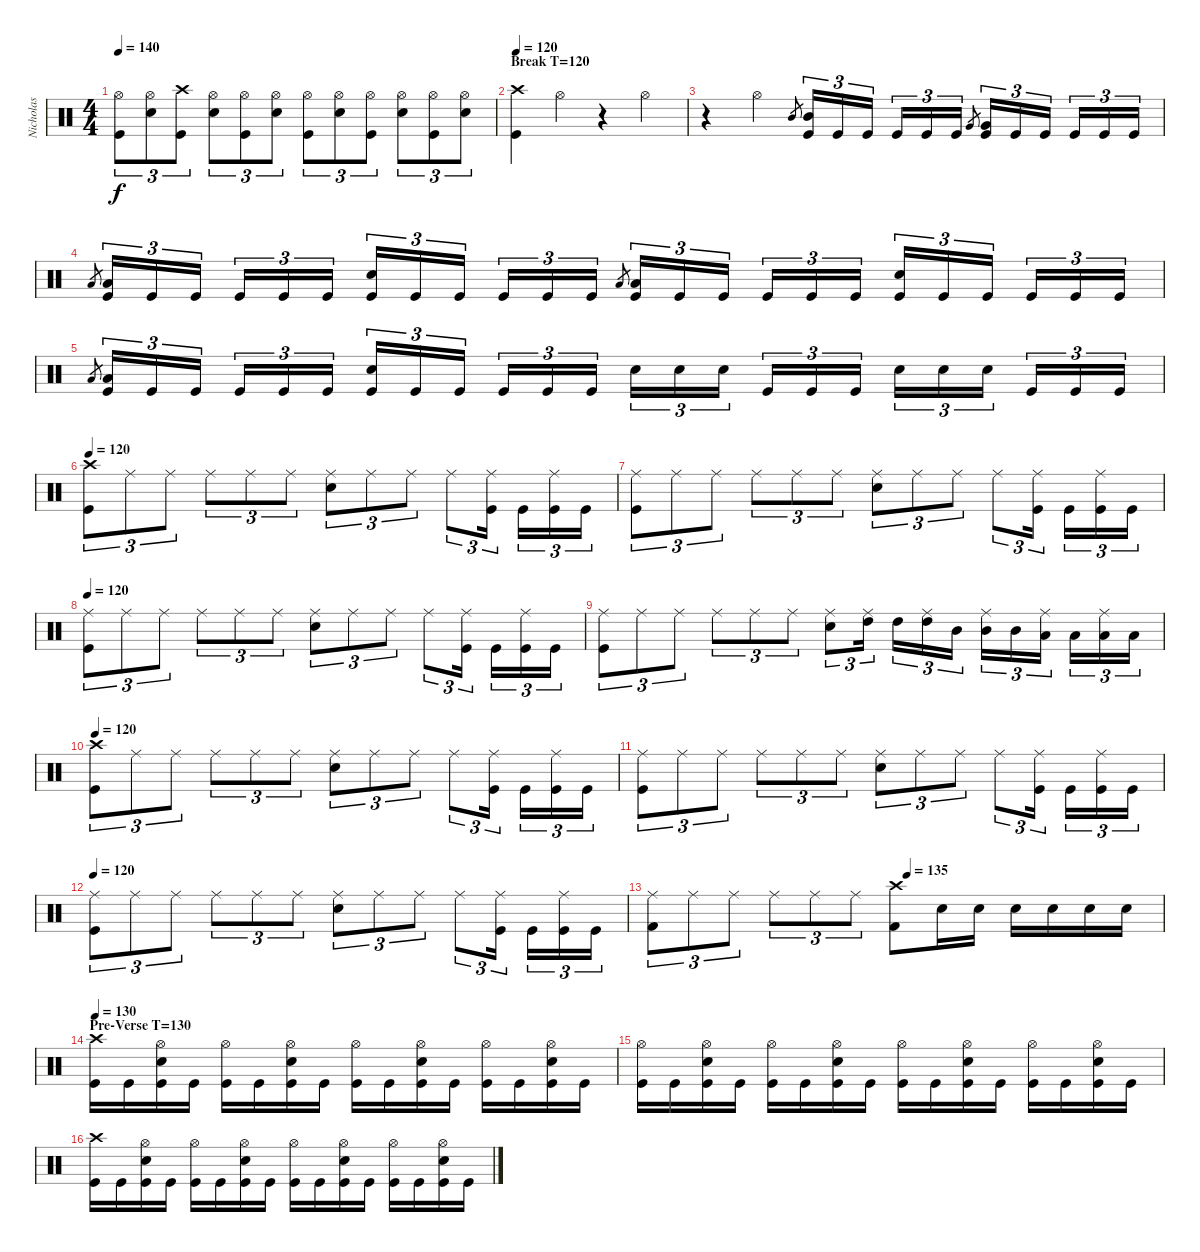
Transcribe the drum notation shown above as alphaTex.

\track ("Nicholas" "Nicholas") {instrument percussion}
\staff {score}
\articulation defaults
\ts (4 4)
\tempo 140
\clef neutral
\ks c
("Hi-Hat (open)" "Kick (hit)").8{tu (3 2) dy f} ("Hi-Hat (open)" "Electric Snare (hit)").8{tu (3 2)} ("Crash high (hit)" "Kick (hit)").8{tu (3 2)} ("Hi-Hat (open)" "Electric Snare (hit)").8{tu (3 2)} ("Hi-Hat (open)" "Kick (hit)").8{tu (3 2)} ("Hi-Hat (open)" "Electric Snare (hit)").8{tu (3 2)} ("Hi-Hat (open)" "Kick (hit)").8{tu (3 2)} ("Hi-Hat (open)" "Electric Snare (hit)").8{tu (3 2)} ("Hi-Hat (open)" "Kick (hit)").8{tu (3 2)} ("Hi-Hat (open)" "Electric Snare (hit)").8{tu (3 2)} ("Hi-Hat (open)" "Kick (hit)").8{tu (3 2)} ("Hi-Hat (open)" "Electric Snare (hit)").8{tu (3 2)} |
\section ("" "Break T=120")
\tempo 120
("Crash high (hit)" "Kick (hit)").4 "Hi-Hat (open)".4 r.4 "Hi-Hat (open)".4 |
r.4 "Hi-Hat (open)".4 "Mid Tom (hit)".8{gr} ("Mid Tom (hit)" "Kick (hit)").16{tu (3 2)} "Kick (hit)".16{tu (3 2)} "Kick (hit)".16{tu (3 2)} "Kick (hit)".16{tu (3 2)} "Kick (hit)".16{tu (3 2)} "Kick (hit)".16{tu (3 2)} "Very Low Tom (hit)".8{gr} ("Very Low Tom (hit)" "Kick (hit)").16{tu (3 2)} "Kick (hit)".16{tu (3 2)} "Kick (hit)".16{tu (3 2)} "Kick (hit)".16{tu (3 2)} "Kick (hit)".16{tu (3 2)} "Kick (hit)".16{tu (3 2)} |
"Low Tom (hit)".8{gr} ("Low Tom (hit)" "Kick (hit)").16{tu (3 2)} "Kick (hit)".16{tu (3 2)} "Kick (hit)".16{tu (3 2)} "Kick (hit)".16{tu (3 2)} "Kick (hit)".16{tu (3 2)} "Kick (hit)".16{tu (3 2)} ("Electric Snare (hit)" "Kick (hit)").16{tu (3 2)} "Kick (hit)".16{tu (3 2)} "Kick (hit)".16{tu (3 2)} "Kick (hit)".16{tu (3 2)} "Kick (hit)".16{tu (3 2)} "Kick (hit)".16{tu (3 2)} "Low Tom (hit)".8{gr} ("Low Tom (hit)" "Kick (hit)").16{tu (3 2)} "Kick (hit)".16{tu (3 2)} "Kick (hit)".16{tu (3 2)} "Kick (hit)".16{tu (3 2)} "Kick (hit)".16{tu (3 2)} "Kick (hit)".16{tu (3 2)} ("Electric Snare (hit)" "Kick (hit)").16{tu (3 2)} "Kick (hit)".16{tu (3 2)} "Kick (hit)".16{tu (3 2)} "Kick (hit)".16{tu (3 2)} "Kick (hit)".16{tu (3 2)} "Kick (hit)".16{tu (3 2)} |
"Low Tom (hit)".8{gr} ("Low Tom (hit)" "Kick (hit)").16{tu (3 2)} "Kick (hit)".16{tu (3 2)} "Kick (hit)".16{tu (3 2)} "Kick (hit)".16{tu (3 2)} "Kick (hit)".16{tu (3 2)} "Kick (hit)".16{tu (3 2)} ("Electric Snare (hit)" "Kick (hit)").16{tu (3 2)} "Kick (hit)".16{tu (3 2)} "Kick (hit)".16{tu (3 2)} "Kick (hit)".16{tu (3 2)} "Kick (hit)".16{tu (3 2)} "Kick (hit)".16{tu (3 2)} "Electric Snare (hit)".16{tu (3 2)} "Electric Snare (hit)".16{tu (3 2)} "Electric Snare (hit)".16{tu (3 2)} "Kick (hit)".16{tu (3 2)} "Kick (hit)".16{tu (3 2)} "Kick (hit)".16{tu (3 2)} "Electric Snare (hit)".16{tu (3 2)} "Electric Snare (hit)".16{tu (3 2)} "Electric Snare (hit)".16{tu (3 2)} "Kick (hit)".16{tu (3 2)} "Kick (hit)".16{tu (3 2)} "Kick (hit)".16{tu (3 2)} |
\tempo 120
("Crash high (hit)" "Kick (hit)").8{tu (3 2)} "Ride (middle)".8{tu (3 2)} "Ride (middle)".8{tu (3 2)} "Ride (middle)".8{tu (3 2)} "Ride (middle)".8{tu (3 2)} "Ride (middle)".8{tu (3 2)} ("Ride (middle)" "Electric Snare (hit)").8{tu (3 2)} "Ride (middle)".8{tu (3 2)} "Ride (middle)".8{tu (3 2)} "Ride (middle)".8{tu (3 2)} ("Ride (middle)" "Kick (hit)").16{tu (3 2)} "Kick (hit)".16{tu (3 2)} ("Ride (middle)" "Kick (hit)").16{tu (3 2)} "Kick (hit)".16{tu (3 2)} |
("Ride (middle)" "Kick (hit)").8{tu (3 2)} "Ride (middle)".8{tu (3 2)} "Ride (middle)".8{tu (3 2)} "Ride (middle)".8{tu (3 2)} "Ride (middle)".8{tu (3 2)} "Ride (middle)".8{tu (3 2)} ("Ride (middle)" "Electric Snare (hit)").8{tu (3 2)} "Ride (middle)".8{tu (3 2)} "Ride (middle)".8{tu (3 2)} "Ride (middle)".8{tu (3 2)} ("Ride (middle)" "Kick (hit)").16{tu (3 2)} "Kick (hit)".16{tu (3 2)} ("Ride (middle)" "Kick (hit)").16{tu (3 2)} "Kick (hit)".16{tu (3 2)} |
\tempo 120
("Ride (middle)" "Kick (hit)").8{tu (3 2)} "Ride (middle)".8{tu (3 2)} "Ride (middle)".8{tu (3 2)} "Ride (middle)".8{tu (3 2)} "Ride (middle)".8{tu (3 2)} "Ride (middle)".8{tu (3 2)} ("Ride (middle)" "Electric Snare (hit)").8{tu (3 2)} "Ride (middle)".8{tu (3 2)} "Ride (middle)".8{tu (3 2)} "Ride (middle)".8{tu (3 2)} ("Ride (middle)" "Kick (hit)").16{tu (3 2)} "Kick (hit)".16{tu (3 2)} ("Ride (middle)" "Kick (hit)").16{tu (3 2)} "Kick (hit)".16{tu (3 2)} |
("Ride (middle)" "Kick (hit)").8{tu (3 2)} "Ride (middle)".8{tu (3 2)} "Ride (middle)".8{tu (3 2)} "Ride (middle)".8{tu (3 2)} "Ride (middle)".8{tu (3 2)} "Ride (middle)".8{tu (3 2)} ("Ride (middle)" "Electric Snare (hit)").8{tu (3 2)} ("Ride (middle)" "High Tom (hit)").16{tu (3 2)} "High Tom (hit)".16{tu (3 2)} ("Ride (middle)" "High Tom (hit)").16{tu (3 2)} "Mid Tom (hit)".16{tu (3 2)} ("Ride (middle)" "Mid Tom (hit)").16{tu (3 2)} "Mid Tom (hit)".16{tu (3 2)} ("Ride (middle)" "Low Tom (hit)").16{tu (3 2)} "Low Tom (hit)".16{tu (3 2)} ("Ride (middle)" "Low Tom (hit)").16{tu (3 2)} "Low Tom (hit)".16{tu (3 2)} |
\tempo 120
("Crash high (hit)" "Kick (hit)").8{tu (3 2)} "Ride (middle)".8{tu (3 2)} "Ride (middle)".8{tu (3 2)} "Ride (middle)".8{tu (3 2)} "Ride (middle)".8{tu (3 2)} "Ride (middle)".8{tu (3 2)} ("Ride (middle)" "Electric Snare (hit)").8{tu (3 2)} "Ride (middle)".8{tu (3 2)} "Ride (middle)".8{tu (3 2)} "Ride (middle)".8{tu (3 2)} ("Ride (middle)" "Kick (hit)").16{tu (3 2)} "Kick (hit)".16{tu (3 2)} ("Ride (middle)" "Kick (hit)").16{tu (3 2)} "Kick (hit)".16{tu (3 2)} |
("Ride (middle)" "Kick (hit)").8{tu (3 2)} "Ride (middle)".8{tu (3 2)} "Ride (middle)".8{tu (3 2)} "Ride (middle)".8{tu (3 2)} "Ride (middle)".8{tu (3 2)} "Ride (middle)".8{tu (3 2)} ("Ride (middle)" "Electric Snare (hit)").8{tu (3 2)} "Ride (middle)".8{tu (3 2)} "Ride (middle)".8{tu (3 2)} "Ride (middle)".8{tu (3 2)} ("Ride (middle)" "Kick (hit)").16{tu (3 2)} "Kick (hit)".16{tu (3 2)} ("Ride (middle)" "Kick (hit)").16{tu (3 2)} "Kick (hit)".16{tu (3 2)} |
\tempo 120
("Ride (middle)" "Kick (hit)").8{tu (3 2)} "Ride (middle)".8{tu (3 2)} "Ride (middle)".8{tu (3 2)} "Ride (middle)".8{tu (3 2)} "Ride (middle)".8{tu (3 2)} "Ride (middle)".8{tu (3 2)} ("Ride (middle)" "Electric Snare (hit)").8{tu (3 2)} "Ride (middle)".8{tu (3 2)} "Ride (middle)".8{tu (3 2)} "Ride (middle)".8{tu (3 2)} ("Ride (middle)" "Kick (hit)").16{tu (3 2)} "Kick (hit)".16{tu (3 2)} ("Ride (middle)" "Kick (hit)").16{tu (3 2)} "Kick (hit)".16{tu (3 2)} |
\tempo (135 0.5)
("Ride (middle)" "Kick (hit) 2").8{tu (3 2)} "Ride (middle)".8{tu (3 2)} "Ride (middle)".8{tu (3 2)} "Ride (middle)".8{tu (3 2)} "Ride (middle)".8{tu (3 2)} "Ride (middle)".8{tu (3 2)} ("Crash high (hit)" "Kick (hit) 2").8 "Electric Snare (hit)".16 "Electric Snare (hit)".16 "Electric Snare (hit)".16 "Electric Snare (hit)".16 "Electric Snare (hit)".16 "Electric Snare (hit)".16 |
\section ("" "Pre-Verse T=130")
\tempo 130
("Crash high (hit)" "Kick (hit)").16 "Kick (hit)".16 ("Hi-Hat (open)" "Electric Snare (hit)" "Kick (hit)").16 "Kick (hit)".16 ("Hi-Hat (open)" "Kick (hit)").16 "Kick (hit)".16 ("Hi-Hat (open)" "Electric Snare (hit)" "Kick (hit)").16 "Kick (hit)".16 ("Hi-Hat (open)" "Kick (hit)").16 "Kick (hit)".16 ("Hi-Hat (open)" "Electric Snare (hit)" "Kick (hit)").16 "Kick (hit)".16 ("Hi-Hat (open)" "Kick (hit)").16 "Kick (hit)".16 ("Hi-Hat (open)" "Electric Snare (hit)" "Kick (hit)").16 "Kick (hit)".16 |
("Hi-Hat (open)" "Kick (hit)").16 "Kick (hit)".16 ("Hi-Hat (open)" "Electric Snare (hit)" "Kick (hit)").16 "Kick (hit)".16 ("Hi-Hat (open)" "Kick (hit)").16 "Kick (hit)".16 ("Hi-Hat (open)" "Electric Snare (hit)" "Kick (hit)").16 "Kick (hit)".16 ("Hi-Hat (open)" "Kick (hit)").16 "Kick (hit)".16 ("Hi-Hat (open)" "Electric Snare (hit)" "Kick (hit)").16 "Kick (hit)".16 ("Hi-Hat (open)" "Kick (hit)").16 "Kick (hit)".16 ("Hi-Hat (open)" "Electric Snare (hit)" "Kick (hit)").16 "Kick (hit)".16 |
("Crash high (hit)" "Kick (hit)").16 "Kick (hit)".16 ("Hi-Hat (open)" "Electric Snare (hit)" "Kick (hit)").16 "Kick (hit)".16 ("Hi-Hat (open)" "Kick (hit)").16 "Kick (hit)".16 ("Hi-Hat (open)" "Electric Snare (hit)" "Kick (hit)").16 "Kick (hit)".16 ("Hi-Hat (open)" "Kick (hit)").16 "Kick (hit)".16 ("Hi-Hat (open)" "Electric Snare (hit)" "Kick (hit)").16 "Kick (hit)".16 ("Hi-Hat (open)" "Kick (hit)").16 "Kick (hit)".16 ("Hi-Hat (open)" "Electric Snare (hit)" "Kick (hit)").16 "Kick (hit)".16
